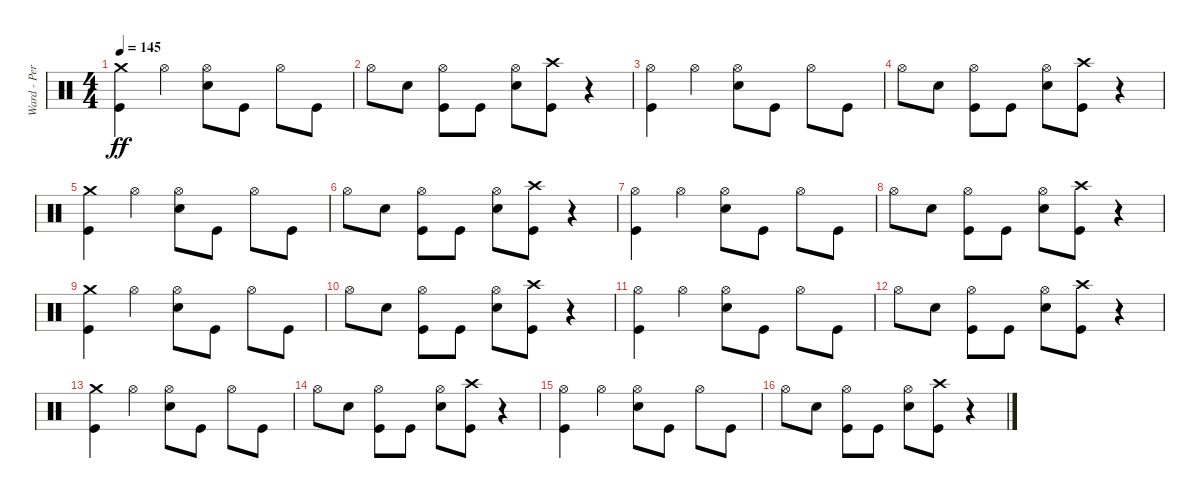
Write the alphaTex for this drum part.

\track ("Ward - Percussion" "Ward - Per") {instrument percussion}
\staff {score}
\articulation defaults
\ts (4 4)
\tempo 145
\clef neutral
\ks c
("Kick (hit)" "Crash medium (hit)").4{dy ff} "Hi-Hat (open)".4 ("Hi-Hat (open)" "Snare (hit) 2").8 "Kick (hit)".8 "Hi-Hat (open)".8 "Kick (hit)".8 |
"Hi-Hat (open)".8 "Snare (hit) 2".8 ("Hi-Hat (open)" "Kick (hit)").8 "Kick (hit)".8 ("Hi-Hat (open)" "Snare (hit) 2").8 ("Kick (hit)" "Crash high (hit)").8 r.4 |
("Hi-Hat (open)" "Kick (hit)").4 "Hi-Hat (open)".4 ("Hi-Hat (open)" "Snare (hit) 2").8 "Kick (hit)".8 "Hi-Hat (open)".8 "Kick (hit)".8 |
"Hi-Hat (open)".8 "Snare (hit) 2".8 ("Hi-Hat (open)" "Kick (hit)").8 "Kick (hit)".8 ("Hi-Hat (open)" "Snare (hit) 2").8 ("Kick (hit)" "Crash high (hit)").8 r.4 |
("Kick (hit)" "Crash medium (hit)").4 "Hi-Hat (open)".4 ("Hi-Hat (open)" "Snare (hit) 2").8 "Kick (hit)".8 "Hi-Hat (open)".8 "Kick (hit)".8 |
"Hi-Hat (open)".8 "Snare (hit) 2".8 ("Hi-Hat (open)" "Kick (hit)").8 "Kick (hit)".8 ("Hi-Hat (open)" "Snare (hit) 2").8 ("Kick (hit)" "Crash high (hit)").8 r.4 |
("Hi-Hat (open)" "Kick (hit)").4 "Hi-Hat (open)".4 ("Hi-Hat (open)" "Snare (hit) 2").8 "Kick (hit)".8 "Hi-Hat (open)".8 "Kick (hit)".8 |
"Hi-Hat (open)".8 "Snare (hit) 2".8 ("Hi-Hat (open)" "Kick (hit)").8 "Kick (hit)".8 ("Hi-Hat (open)" "Snare (hit) 2").8 ("Kick (hit)" "Crash high (hit)").8 r.4 |
("Kick (hit)" "Crash medium (hit)").4 "Hi-Hat (open)".4 ("Hi-Hat (open)" "Snare (hit) 2").8 "Kick (hit)".8 "Hi-Hat (open)".8 "Kick (hit)".8 |
"Hi-Hat (open)".8 "Snare (hit) 2".8 ("Hi-Hat (open)" "Kick (hit)").8 "Kick (hit)".8 ("Hi-Hat (open)" "Snare (hit) 2").8 ("Kick (hit)" "Crash high (hit)").8 r.4 |
("Hi-Hat (open)" "Kick (hit)").4 "Hi-Hat (open)".4 ("Hi-Hat (open)" "Snare (hit) 2").8 "Kick (hit)".8 "Hi-Hat (open)".8 "Kick (hit)".8 |
"Hi-Hat (open)".8 "Snare (hit) 2".8 ("Hi-Hat (open)" "Kick (hit)").8 "Kick (hit)".8 ("Hi-Hat (open)" "Snare (hit) 2").8 ("Kick (hit)" "Crash high (hit)").8 r.4 |
("Kick (hit)" "Crash medium (hit)").4 "Hi-Hat (open)".4 ("Hi-Hat (open)" "Snare (hit) 2").8 "Kick (hit)".8 "Hi-Hat (open)".8 "Kick (hit)".8 |
"Hi-Hat (open)".8 "Snare (hit) 2".8 ("Hi-Hat (open)" "Kick (hit)").8 "Kick (hit)".8 ("Hi-Hat (open)" "Snare (hit) 2").8 ("Kick (hit)" "Crash high (hit)").8 r.4 |
("Hi-Hat (open)" "Kick (hit)").4 "Hi-Hat (open)".4 ("Hi-Hat (open)" "Snare (hit) 2").8 "Kick (hit)".8 "Hi-Hat (open)".8 "Kick (hit)".8 |
"Hi-Hat (open)".8 "Snare (hit) 2".8 ("Hi-Hat (open)" "Kick (hit)").8 "Kick (hit)".8 ("Hi-Hat (open)" "Snare (hit) 2").8 ("Kick (hit)" "Crash high (hit)").8 r.4
